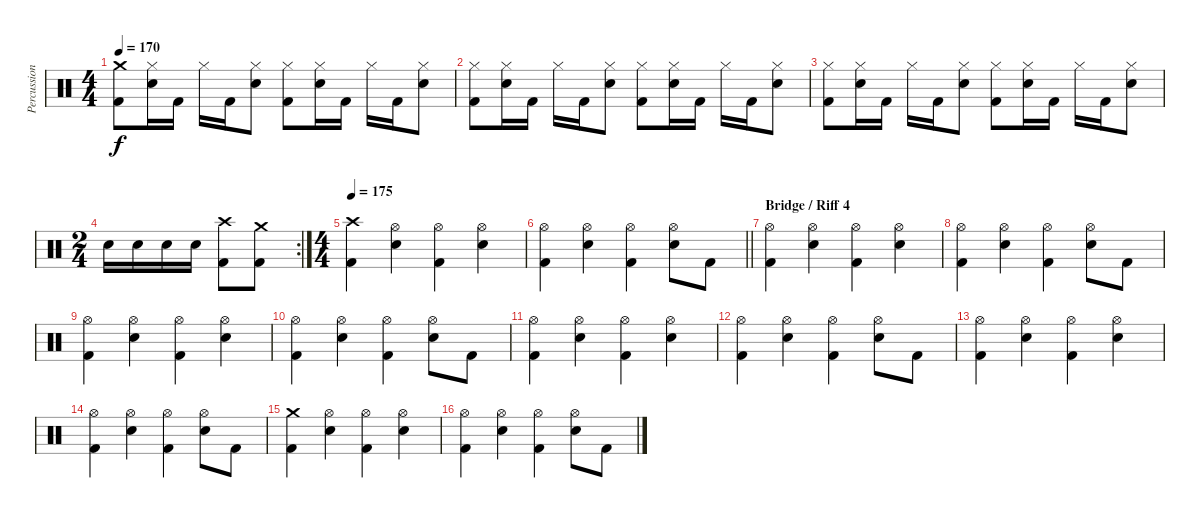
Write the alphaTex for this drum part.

\track ("Percussion" "Percussion") {instrument percussion}
\staff {score}
\articulation defaults
\ts (4 4)
\tempo 170
\clef neutral
\ks c
("Crash medium (hit)" "Kick (hit) 2").8{dy f} ("Hi-Hat (closed)" "Electric Snare (hit)").16 "Kick (hit) 2".16 "Hi-Hat (closed)".16 "Kick (hit) 2".16 ("Hi-Hat (closed)" "Electric Snare (hit)").8 ("Hi-Hat (closed)" "Kick (hit) 2").8 ("Hi-Hat (closed)" "Electric Snare (hit)").16 "Kick (hit) 2".16 "Hi-Hat (closed)".16 "Kick (hit) 2".16 ("Hi-Hat (closed)" "Electric Snare (hit)").8 |
("Hi-Hat (closed)" "Kick (hit) 2").8 ("Hi-Hat (closed)" "Electric Snare (hit)").16 "Kick (hit) 2".16 "Hi-Hat (closed)".16 "Kick (hit) 2".16 ("Hi-Hat (closed)" "Electric Snare (hit)").8 ("Hi-Hat (closed)" "Kick (hit) 2").8 ("Hi-Hat (closed)" "Electric Snare (hit)").16 "Kick (hit) 2".16 "Hi-Hat (closed)".16 "Kick (hit) 2".16 ("Hi-Hat (closed)" "Electric Snare (hit)").8 |
("Hi-Hat (closed)" "Kick (hit) 2").8 ("Hi-Hat (closed)" "Electric Snare (hit)").16 "Kick (hit) 2".16 "Hi-Hat (closed)".16 "Kick (hit) 2".16 ("Hi-Hat (closed)" "Electric Snare (hit)").8 ("Hi-Hat (closed)" "Kick (hit) 2").8 ("Hi-Hat (closed)" "Electric Snare (hit)").16 "Kick (hit) 2".16 "Hi-Hat (closed)".16 "Kick (hit) 2".16 ("Hi-Hat (closed)" "Electric Snare (hit)").8 |
\rc 2
\ts (2 4)
"Electric Snare (hit)".16 "Electric Snare (hit)".16 "Electric Snare (hit)".16 "Electric Snare (hit)".16 ("Crash high (hit)" "Kick (hit) 2").8 ("Crash medium (hit)" "Kick (hit) 2").8 |
\ts (4 4)
\tempo 175
("Crash high (hit)" "Kick (hit) 2").4 ("Hi-Hat (open)" "Electric Snare (hit)").4 ("Hi-Hat (open)" "Kick (hit) 2").4 ("Hi-Hat (open)" "Electric Snare (hit)").4 |
\barLineRight lightlight
("Hi-Hat (open)" "Kick (hit) 2").4 ("Hi-Hat (open)" "Electric Snare (hit)").4 ("Hi-Hat (open)" "Kick (hit) 2").4 ("Hi-Hat (open)" "Electric Snare (hit)").8 "Kick (hit) 2".8 |
\section ("" "Bridge / Riff 4")
("Hi-Hat (open)" "Kick (hit) 2").4 ("Hi-Hat (open)" "Electric Snare (hit)").4 ("Hi-Hat (open)" "Kick (hit) 2").4 ("Hi-Hat (open)" "Electric Snare (hit)").4 |
("Hi-Hat (open)" "Kick (hit) 2").4 ("Hi-Hat (open)" "Electric Snare (hit)").4 ("Hi-Hat (open)" "Kick (hit) 2").4 ("Hi-Hat (open)" "Electric Snare (hit)").8 "Kick (hit) 2".8 |
("Hi-Hat (open)" "Kick (hit) 2").4 ("Hi-Hat (open)" "Electric Snare (hit)").4 ("Hi-Hat (open)" "Kick (hit) 2").4 ("Hi-Hat (open)" "Electric Snare (hit)").4 |
("Hi-Hat (open)" "Kick (hit) 2").4 ("Hi-Hat (open)" "Electric Snare (hit)").4 ("Hi-Hat (open)" "Kick (hit) 2").4 ("Hi-Hat (open)" "Electric Snare (hit)").8 "Kick (hit) 2".8 |
("Hi-Hat (open)" "Kick (hit) 2").4 ("Hi-Hat (open)" "Electric Snare (hit)").4 ("Hi-Hat (open)" "Kick (hit) 2").4 ("Hi-Hat (open)" "Electric Snare (hit)").4 |
("Hi-Hat (open)" "Kick (hit) 2").4 ("Hi-Hat (open)" "Electric Snare (hit)").4 ("Hi-Hat (open)" "Kick (hit) 2").4 ("Hi-Hat (open)" "Electric Snare (hit)").8 "Kick (hit) 2".8 |
("Hi-Hat (open)" "Kick (hit) 2").4 ("Hi-Hat (open)" "Electric Snare (hit)").4 ("Hi-Hat (open)" "Kick (hit) 2").4 ("Hi-Hat (open)" "Electric Snare (hit)").4 |
("Hi-Hat (open)" "Kick (hit) 2").4 ("Hi-Hat (open)" "Electric Snare (hit)").4 ("Hi-Hat (open)" "Kick (hit) 2").4 ("Hi-Hat (open)" "Electric Snare (hit)").8 "Kick (hit) 2".8 |
("Crash medium (hit)" "Kick (hit) 2").4 ("Hi-Hat (open)" "Electric Snare (hit)").4 ("Hi-Hat (open)" "Kick (hit) 2").4 ("Hi-Hat (open)" "Electric Snare (hit)").4 |
("Hi-Hat (open)" "Kick (hit) 2").4 ("Hi-Hat (open)" "Electric Snare (hit)").4 ("Hi-Hat (open)" "Kick (hit) 2").4 ("Hi-Hat (open)" "Electric Snare (hit)").8 "Kick (hit) 2".8
